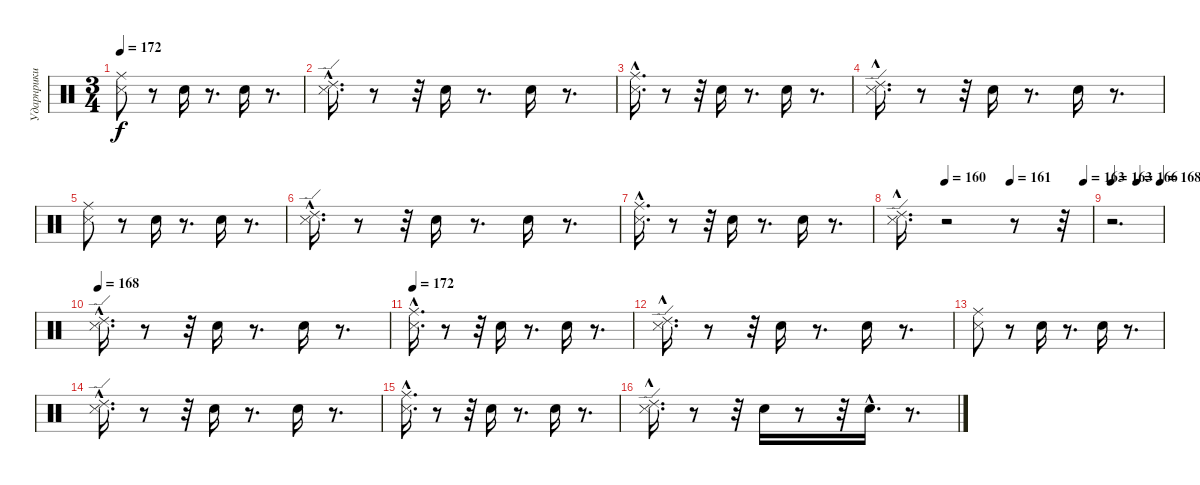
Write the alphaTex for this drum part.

\track ("Ударнрики" "Ударнрики") {instrument percussion}
\staff {score}
\articulation defaults
\ts (3 4)
\tempo 172
\clef neutral
\ks c
("Ride (middle)" "Metronome (hit)").8{dy f} r.8 "Electric Snare (hit)".16 r.8{d} "Electric Snare (hit)".16 r.8{d} |
("Ride (edge) 2"{hac} "Metronome (hit)"{hac}).16{d} r.8 r.32 "Electric Snare (hit)".16 r.8{d} "Electric Snare (hit)".16 r.8{d} |
("Ride (middle)" "Metronome (hit)"{hac}).16{d} r.8 r.32 "Electric Snare (hit)".16 r.8{d} "Electric Snare (hit)".16 r.8{d} |
("Ride (edge) 2" "Metronome (hit)"{hac}).16{d} r.8 r.32 "Electric Snare (hit)".16 r.8{d} "Electric Snare (hit)".16 r.8{d} |
("Ride (middle)" "Metronome (hit)").8 r.8 "Electric Snare (hit)".16 r.8{d} "Electric Snare (hit)".16 r.8{d} |
("Ride (edge) 2"{hac} "Metronome (hit)"{hac}).16{d} r.8 r.32 "Electric Snare (hit)".16 r.8{d} "Electric Snare (hit)".16 r.8{d} |
("Ride (middle)" "Metronome (hit)"{hac}).16{d} r.8 r.32 "Electric Snare (hit)".16 r.8{d} "Electric Snare (hit)".16 r.8{d} |
\tempo (160 0.25)
\tempo (161 0.5833333333333334)
\tempo (163 0.9583333333333334)
("Ride (edge) 2" "Metronome (hit)"{hac}).16{d} r.2 r.8 r.32 |
\tempo 163
\tempo (166 0.5)
\tempo (168 0.9583333333333334)
r.2{d} |
\tempo 168
("Ride (edge) 2"{hac} "Metronome (hit)"{hac}).16{d} r.8 r.32 "Electric Snare (hit)".16 r.8{d} "Electric Snare (hit)".16 r.8{d} |
\tempo 172
("Ride (middle)" "Metronome (hit)"{hac}).16{d} r.8 r.32 "Electric Snare (hit)".16 r.8{d} "Electric Snare (hit)".16 r.8{d} |
("Ride (edge) 2" "Metronome (hit)"{hac}).16{d} r.8 r.32 "Electric Snare (hit)".16 r.8{d} "Electric Snare (hit)".16 r.8{d} |
("Ride (middle)" "Metronome (hit)").8 r.8 "Electric Snare (hit)".16 r.8{d} "Electric Snare (hit)".16 r.8{d} |
("Ride (edge) 2"{hac} "Metronome (hit)"{hac}).16{d} r.8 r.32 "Electric Snare (hit)".16 r.8{d} "Electric Snare (hit)".16 r.8{d} |
("Ride (middle)" "Metronome (hit)"{hac}).16{d} r.8 r.32 "Electric Snare (hit)".16 r.8{d} "Electric Snare (hit)".16 r.8{d} |
("Ride (edge) 2" "Metronome (hit)"{hac}).16{d} r.8 r.32 "Electric Snare (hit)".16 r.8 r.32 "Electric Snare (hit)"{hac}.16{d} r.8{d}
